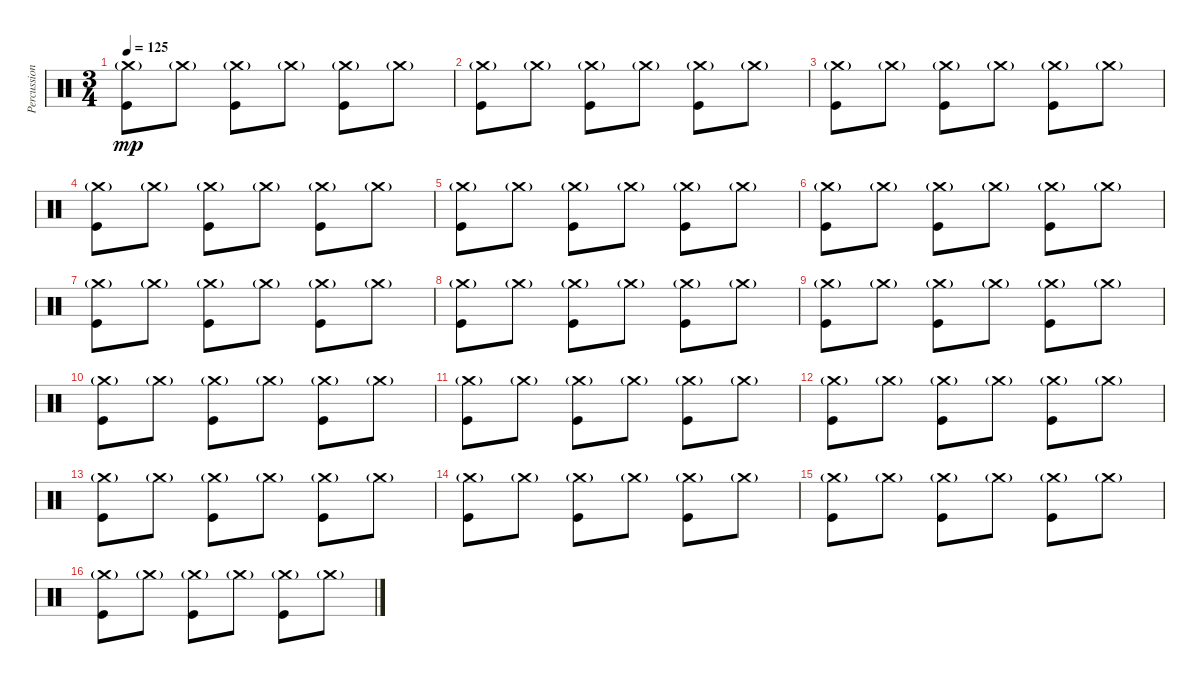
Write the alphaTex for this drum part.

\track ("Percussion" "Percussion") {instrument percussion}
\staff {score}
\articulation defaults
\ts (3 4)
\tempo 125
\clef neutral
\ks c
("Crash medium (hit)"{g} "Kick (hit)").8{dy mp} "Crash medium (hit)"{g}.8 ("Crash medium (hit)"{g} "Kick (hit)").8 "Crash medium (hit)"{g}.8 ("Crash medium (hit)"{g} "Kick (hit)").8 "Crash medium (hit)"{g}.8 |
("Crash medium (hit)"{g} "Kick (hit)").8 "Crash medium (hit)"{g}.8 ("Crash medium (hit)"{g} "Kick (hit)").8 "Crash medium (hit)"{g}.8 ("Crash medium (hit)"{g} "Kick (hit)").8 "Crash medium (hit)"{g}.8 |
("Crash medium (hit)"{g} "Kick (hit)").8 "Crash medium (hit)"{g}.8 ("Crash medium (hit)"{g} "Kick (hit)").8 "Crash medium (hit)"{g}.8 ("Crash medium (hit)"{g} "Kick (hit)").8 "Crash medium (hit)"{g}.8 |
("Crash medium (hit)"{g} "Kick (hit)").8 "Crash medium (hit)"{g}.8 ("Crash medium (hit)"{g} "Kick (hit)").8 "Crash medium (hit)"{g}.8 ("Crash medium (hit)"{g} "Kick (hit)").8 "Crash medium (hit)"{g}.8 |
("Crash medium (hit)"{g} "Kick (hit)").8 "Crash medium (hit)"{g}.8 ("Crash medium (hit)"{g} "Kick (hit)").8 "Crash medium (hit)"{g}.8 ("Crash medium (hit)"{g} "Kick (hit)").8 "Crash medium (hit)"{g}.8 |
("Crash medium (hit)"{g} "Kick (hit)").8 "Crash medium (hit)"{g}.8 ("Crash medium (hit)"{g} "Kick (hit)").8 "Crash medium (hit)"{g}.8 ("Crash medium (hit)"{g} "Kick (hit)").8 "Crash medium (hit)"{g}.8 |
("Crash medium (hit)"{g} "Kick (hit)").8 "Crash medium (hit)"{g}.8 ("Crash medium (hit)"{g} "Kick (hit)").8 "Crash medium (hit)"{g}.8 ("Crash medium (hit)"{g} "Kick (hit)").8 "Crash medium (hit)"{g}.8 |
("Crash medium (hit)"{g} "Kick (hit)").8 "Crash medium (hit)"{g}.8 ("Crash medium (hit)"{g} "Kick (hit)").8 "Crash medium (hit)"{g}.8 ("Crash medium (hit)"{g} "Kick (hit)").8 "Crash medium (hit)"{g}.8 |
("Crash medium (hit)"{g} "Kick (hit)").8 "Crash medium (hit)"{g}.8 ("Crash medium (hit)"{g} "Kick (hit)").8 "Crash medium (hit)"{g}.8 ("Crash medium (hit)"{g} "Kick (hit)").8 "Crash medium (hit)"{g}.8 |
("Crash medium (hit)"{g} "Kick (hit)").8 "Crash medium (hit)"{g}.8 ("Crash medium (hit)"{g} "Kick (hit)").8 "Crash medium (hit)"{g}.8 ("Crash medium (hit)"{g} "Kick (hit)").8 "Crash medium (hit)"{g}.8 |
("Crash medium (hit)"{g} "Kick (hit)").8 "Crash medium (hit)"{g}.8 ("Crash medium (hit)"{g} "Kick (hit)").8 "Crash medium (hit)"{g}.8 ("Crash medium (hit)"{g} "Kick (hit)").8 "Crash medium (hit)"{g}.8 |
("Crash medium (hit)"{g} "Kick (hit)").8 "Crash medium (hit)"{g}.8 ("Crash medium (hit)"{g} "Kick (hit)").8 "Crash medium (hit)"{g}.8 ("Crash medium (hit)"{g} "Kick (hit)").8 "Crash medium (hit)"{g}.8 |
("Crash medium (hit)"{g} "Kick (hit)").8 "Crash medium (hit)"{g}.8 ("Crash medium (hit)"{g} "Kick (hit)").8 "Crash medium (hit)"{g}.8 ("Crash medium (hit)"{g} "Kick (hit)").8 "Crash medium (hit)"{g}.8 |
("Crash medium (hit)"{g} "Kick (hit)").8 "Crash medium (hit)"{g}.8 ("Crash medium (hit)"{g} "Kick (hit)").8 "Crash medium (hit)"{g}.8 ("Crash medium (hit)"{g} "Kick (hit)").8 "Crash medium (hit)"{g}.8 |
("Crash medium (hit)"{g} "Kick (hit)").8 "Crash medium (hit)"{g}.8 ("Crash medium (hit)"{g} "Kick (hit)").8 "Crash medium (hit)"{g}.8 ("Crash medium (hit)"{g} "Kick (hit)").8 "Crash medium (hit)"{g}.8 |
("Crash medium (hit)"{g} "Kick (hit)").8 "Crash medium (hit)"{g}.8 ("Crash medium (hit)"{g} "Kick (hit)").8 "Crash medium (hit)"{g}.8 ("Crash medium (hit)"{g} "Kick (hit)").8 "Crash medium (hit)"{g}.8
